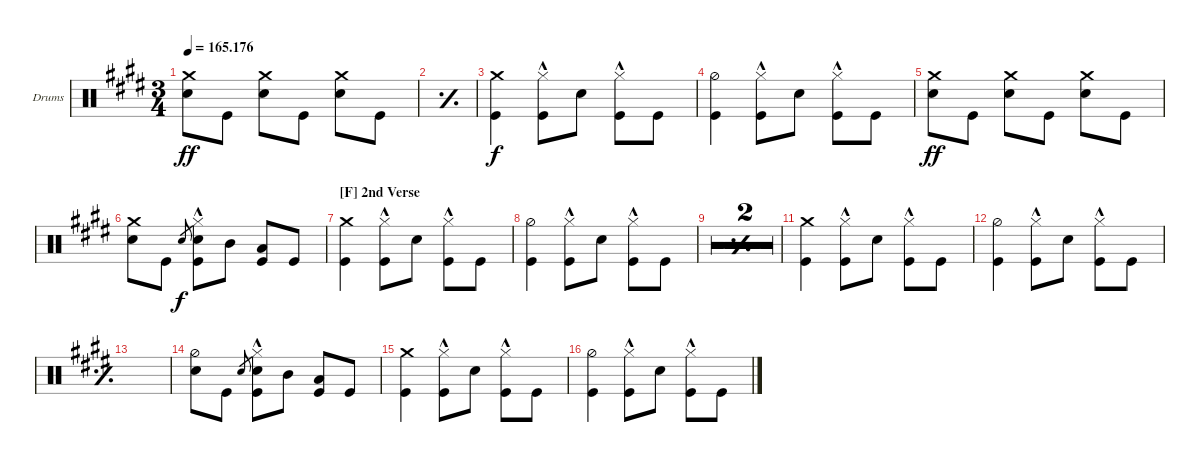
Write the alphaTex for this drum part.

\defaultSystemsLayout 4
\bracketExtendMode groupsimilarinstruments
\firstSystemTrackNameOrientation horizontal
\otherSystemsTrackNameOrientation horizontal
\track ("Dave Grohl (Drums)" "Drums") {multiBarRest instrument percussion}
\staff {score}
\articulation defaults
\ts (3 4)
\tempo
165.176
\accidentals auto
\clef neutral
\ottava regular
\simile none
\ks e
("Snare (hit) 2" "Crash medium (hit)").8{dy ff} "Kick (hit)".8 ("Snare (hit) 2" "Crash medium (hit)").8 "Kick (hit)".8 ("Snare (hit) 2" "Crash medium (hit)").8 "Kick (hit)".8 |
\simile simple
|
\simile none
("Kick (hit)" "Crash medium (hit)").4{dy f} ("Kick (hit)" "Hi-Hat (closed)"{hac}).8 "Snare (hit) 2".8 ("Kick (hit)" "Hi-Hat (closed)"{hac}).8 "Kick (hit)".8 |
("Kick (hit)" "Hi-Hat (half)").4 ("Kick (hit)" "Hi-Hat (closed)"{hac}).8 "Snare (hit) 2".8 ("Kick (hit)" "Hi-Hat (closed)"{hac}).8 "Kick (hit)".8 |
("Snare (hit) 2" "Crash medium (hit)").8{dy ff} "Kick (hit)".8 ("Snare (hit) 2" "Crash medium (hit)").8 "Kick (hit)".8 ("Snare (hit) 2" "Crash medium (hit)").8 "Kick (hit)".8 |
("Snare (hit) 2" "Crash medium (hit)").8 "Kick (hit)".8 "Snare (hit) 2".8{gr dy f} ("Kick (hit)" "Hi-Hat (closed)"{hac} "Snare (hit) 2").8 "Mid Tom (hit)".8 ("Kick (hit)" "Low Tom (hit)").8 "Kick (hit)".8 |
\section ("F" "2nd Verse")
("Kick (hit)" "Crash medium (hit)").4 ("Kick (hit)" "Hi-Hat (closed)"{hac}).8 "Snare (hit) 2".8 ("Kick (hit)" "Hi-Hat (closed)"{hac}).8 "Kick (hit)".8 |
("Kick (hit)" "Hi-Hat (half)").4 ("Kick (hit)" "Hi-Hat (closed)"{hac}).8 "Snare (hit) 2".8 ("Kick (hit)" "Hi-Hat (closed)"{hac}).8 "Kick (hit)".8 |
\simile simple
|
|
\simile none
("Kick (hit)" "Crash medium (hit)").4 ("Kick (hit)" "Hi-Hat (closed)"{hac}).8 "Snare (hit) 2".8 ("Kick (hit)" "Hi-Hat (closed)"{hac}).8 "Kick (hit)".8 |
("Kick (hit)" "Hi-Hat (half)").4 ("Kick (hit)" "Hi-Hat (closed)"{hac}).8 "Snare (hit) 2".8 ("Kick (hit)" "Hi-Hat (closed)"{hac}).8 "Kick (hit)".8 |
\simile simple
|
\simile none
("Snare (hit) 2" "Hi-Hat (half)").8 "Kick (hit)".8 "Snare (hit) 2".8{gr} ("Kick (hit)" "Hi-Hat (closed)"{hac} "Snare (hit) 2").8 "Mid Tom (hit)".8 ("Kick (hit)" "Low Tom (hit)").8 "Kick (hit)".8 |
("Kick (hit)" "Crash medium (hit)").4 ("Kick (hit)" "Hi-Hat (closed)"{hac}).8 "Snare (hit) 2".8 ("Kick (hit)" "Hi-Hat (closed)"{hac}).8 "Kick (hit)".8 |
("Kick (hit)" "Hi-Hat (half)").4 ("Kick (hit)" "Hi-Hat (closed)"{hac}).8 "Snare (hit) 2".8 ("Kick (hit)" "Hi-Hat (closed)"{hac}).8 "Kick (hit)".8
